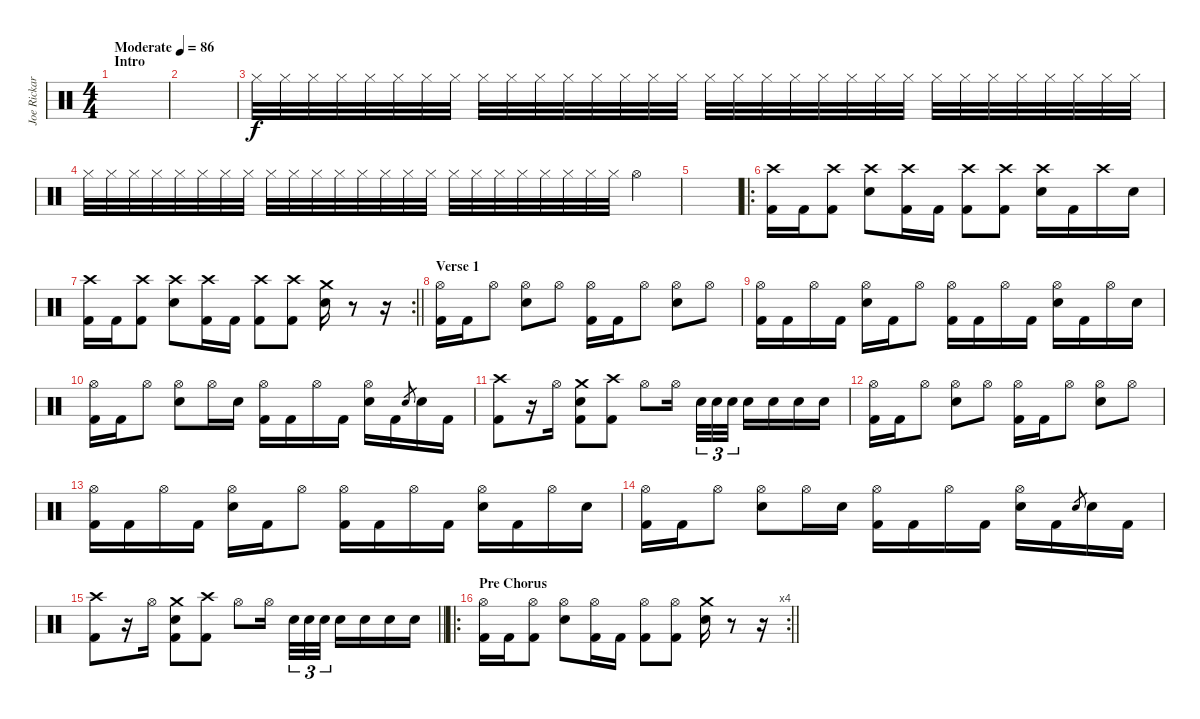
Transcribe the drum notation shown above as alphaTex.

\track ("Joe Rickard" "Joe Rickar") {instrument percussion}
\staff {score}
\articulation defaults
\ts (4 4)
\section ("" "Intro")
\tempo (86 "Moderate")
\clef neutral
\ks c
|
|
"Hi-Hat (closed)".32 "Hi-Hat (closed)".32 "Hi-Hat (closed)".32 "Hi-Hat (closed)".32 "Hi-Hat (closed)".32 "Hi-Hat (closed)".32 "Hi-Hat (closed)".32 "Hi-Hat (closed)".32 "Hi-Hat (closed)".32 "Hi-Hat (closed)".32 "Hi-Hat (closed)".32 "Hi-Hat (closed)".32 "Hi-Hat (closed)".32 "Hi-Hat (closed)".32 "Hi-Hat (closed)".32 "Hi-Hat (closed)".32 "Hi-Hat (closed)".32 "Hi-Hat (closed)".32 "Hi-Hat (closed)".32 "Hi-Hat (closed)".32 "Hi-Hat (closed)".32 "Hi-Hat (closed)".32 "Hi-Hat (closed)".32 "Hi-Hat (closed)".32 "Hi-Hat (closed)".32 "Hi-Hat (closed)".32 "Hi-Hat (closed)".32 "Hi-Hat (closed)".32 "Hi-Hat (closed)".32 "Hi-Hat (closed)".32 "Hi-Hat (closed)".32 "Hi-Hat (closed)".32 |
"Hi-Hat (closed)".32 "Hi-Hat (closed)".32 "Hi-Hat (closed)".32 "Hi-Hat (closed)".32 "Hi-Hat (closed)".32 "Hi-Hat (closed)".32 "Hi-Hat (closed)".32 "Hi-Hat (closed)".32 "Hi-Hat (closed)".32 "Hi-Hat (closed)".32 "Hi-Hat (closed)".32 "Hi-Hat (closed)".32 "Hi-Hat (closed)".32 "Hi-Hat (closed)".32 "Hi-Hat (closed)".32 "Hi-Hat (closed)".32 "Hi-Hat (closed)".32 "Hi-Hat (closed)".32 "Hi-Hat (closed)".32 "Hi-Hat (closed)".32 "Hi-Hat (closed)".32 "Hi-Hat (closed)".32 "Hi-Hat (closed)".32 "Hi-Hat (closed)".32 "Hi-Hat (open)".4 |
|
\ro
("Crash high (hit)" "Kick (hit) 2").16 "Kick (hit) 2".16 ("Crash high (hit)" "Kick (hit) 2").8 ("Crash high (hit)" "Electric Snare (hit)").8 ("Crash high (hit)" "Kick (hit) 2").16 "Kick (hit) 2".16 ("Crash high (hit)" "Kick (hit) 2").8 ("Crash high (hit)" "Kick (hit) 2").8 ("Crash high (hit)" "Electric Snare (hit)").16 "Kick (hit) 2".16 "Crash high (hit)".16 "Electric Snare (hit)".16 |
\rc 2
\barLineRight lightlight
("Crash high (hit)" "Kick (hit) 2").16 "Kick (hit) 2".16 ("Crash high (hit)" "Kick (hit) 2").8 ("Crash high (hit)" "Electric Snare (hit)").8 ("Crash high (hit)" "Kick (hit) 2").16 "Kick (hit) 2".16 ("Crash high (hit)" "Kick (hit) 2").8 ("Crash high (hit)" "Kick (hit) 2").8 ("Crash medium (hit)" "Electric Snare (hit)").16 r.8 r.16 |
\section ("" "Verse 1")
("Hi-Hat (open)" "Kick (hit) 2").16 "Kick (hit) 2".16 "Hi-Hat (open)".8 ("Hi-Hat (open)" "Electric Snare (hit)").8 "Hi-Hat (open)".8 ("Hi-Hat (open)" "Kick (hit) 2").16 "Kick (hit) 2".16 "Hi-Hat (open)".8 ("Hi-Hat (open)" "Electric Snare (hit)").8 "Hi-Hat (open)".8 |
("Hi-Hat (open)" "Kick (hit) 2").16 "Kick (hit) 2".16 "Hi-Hat (open)".16 "Kick (hit) 2".16 ("Hi-Hat (open)" "Electric Snare (hit)").16 "Kick (hit) 2".16 "Hi-Hat (open)".8 ("Hi-Hat (open)" "Kick (hit) 2").16 "Kick (hit) 2".16 "Hi-Hat (open)".16 "Kick (hit) 2".16 ("Hi-Hat (open)" "Electric Snare (hit)").16 "Kick (hit) 2".16 "Hi-Hat (open)".16 "Electric Snare (hit)".16 |
("Hi-Hat (open)" "Kick (hit) 2").16 "Kick (hit) 2".16 "Hi-Hat (open)".8 ("Hi-Hat (open)" "Electric Snare (hit)").8 "Hi-Hat (open)".16 "Electric Snare (hit)".16 ("Hi-Hat (open)" "Kick (hit) 2").16 "Kick (hit) 2".16 "Hi-Hat (open)".16 "Kick (hit) 2".16 ("Hi-Hat (open)" "Electric Snare (hit)").16 "Kick (hit) 2".16 "Electric Snare (hit)".8{gr} "Electric Snare (hit)".16 "Kick (hit) 2".16 |
("Crash high (hit)" "Kick (hit) 2").8 r.16 "Hi-Hat (open)".16 ("Crash medium (hit)" "Electric Snare (hit)" "Kick (hit) 2").8 ("Crash high (hit)" "Kick (hit) 2").8 "Hi-Hat (open)".8 "Hi-Hat (open)".16{beam splitsecondary} "Electric Snare (hit)".32{tu (3 2)} "Electric Snare (hit)".32{tu (3 2)} "Electric Snare (hit)".32{tu (3 2)} "Electric Snare (hit)".16 "Electric Snare (hit)".16 "Electric Snare (hit)".16 "Electric Snare (hit)".16 |
("Hi-Hat (open)" "Kick (hit) 2").16 "Kick (hit) 2".16 "Hi-Hat (open)".8 ("Hi-Hat (open)" "Electric Snare (hit)").8 "Hi-Hat (open)".8 ("Hi-Hat (open)" "Kick (hit) 2").16 "Kick (hit) 2".16 "Hi-Hat (open)".8 ("Hi-Hat (open)" "Electric Snare (hit)").8 "Hi-Hat (open)".8 |
("Hi-Hat (open)" "Kick (hit) 2").16 "Kick (hit) 2".16 "Hi-Hat (open)".16 "Kick (hit) 2".16 ("Hi-Hat (open)" "Electric Snare (hit)").16 "Kick (hit) 2".16 "Hi-Hat (open)".8 ("Hi-Hat (open)" "Kick (hit) 2").16 "Kick (hit) 2".16 "Hi-Hat (open)".16 "Kick (hit) 2".16 ("Hi-Hat (open)" "Electric Snare (hit)").16 "Kick (hit) 2".16 "Hi-Hat (open)".16 "Electric Snare (hit)".16 |
("Hi-Hat (open)" "Kick (hit) 2").16 "Kick (hit) 2".16 "Hi-Hat (open)".8 ("Hi-Hat (open)" "Electric Snare (hit)").8 "Hi-Hat (open)".16 "Electric Snare (hit)".16 ("Hi-Hat (open)" "Kick (hit) 2").16 "Kick (hit) 2".16 "Hi-Hat (open)".16 "Kick (hit) 2".16 ("Hi-Hat (open)" "Electric Snare (hit)").16 "Kick (hit) 2".16 "Electric Snare (hit)".8{gr} "Electric Snare (hit)".16 "Kick (hit) 2".16 |
\barLineRight lightlight
("Crash high (hit)" "Kick (hit) 2").8 r.16 "Hi-Hat (open)".16 ("Crash medium (hit)" "Electric Snare (hit)" "Kick (hit) 2").8 ("Crash high (hit)" "Kick (hit) 2").8 "Hi-Hat (open)".8 "Hi-Hat (open)".16{beam splitsecondary} "Electric Snare (hit)".32{tu (3 2)} "Electric Snare (hit)".32{tu (3 2)} "Electric Snare (hit)".32{tu (3 2)} "Electric Snare (hit)".16 "Electric Snare (hit)".16 "Electric Snare (hit)".16 "Electric Snare (hit)".16 |
\ro
\rc 4
\section ("" "Pre Chorus")
\barLineRight lightlight
("Hi-Hat (open)" "Kick (hit) 2").16 "Kick (hit) 2".16 ("Hi-Hat (open)" "Kick (hit) 2").8 ("Hi-Hat (open)" "Electric Snare (hit)").8 ("Hi-Hat (open)" "Kick (hit) 2").16 "Kick (hit) 2".16 ("Hi-Hat (open)" "Kick (hit) 2").8 ("Hi-Hat (open)" "Kick (hit) 2").8 ("Crash medium (hit)" "Electric Snare (hit)").16 r.8 r.16
